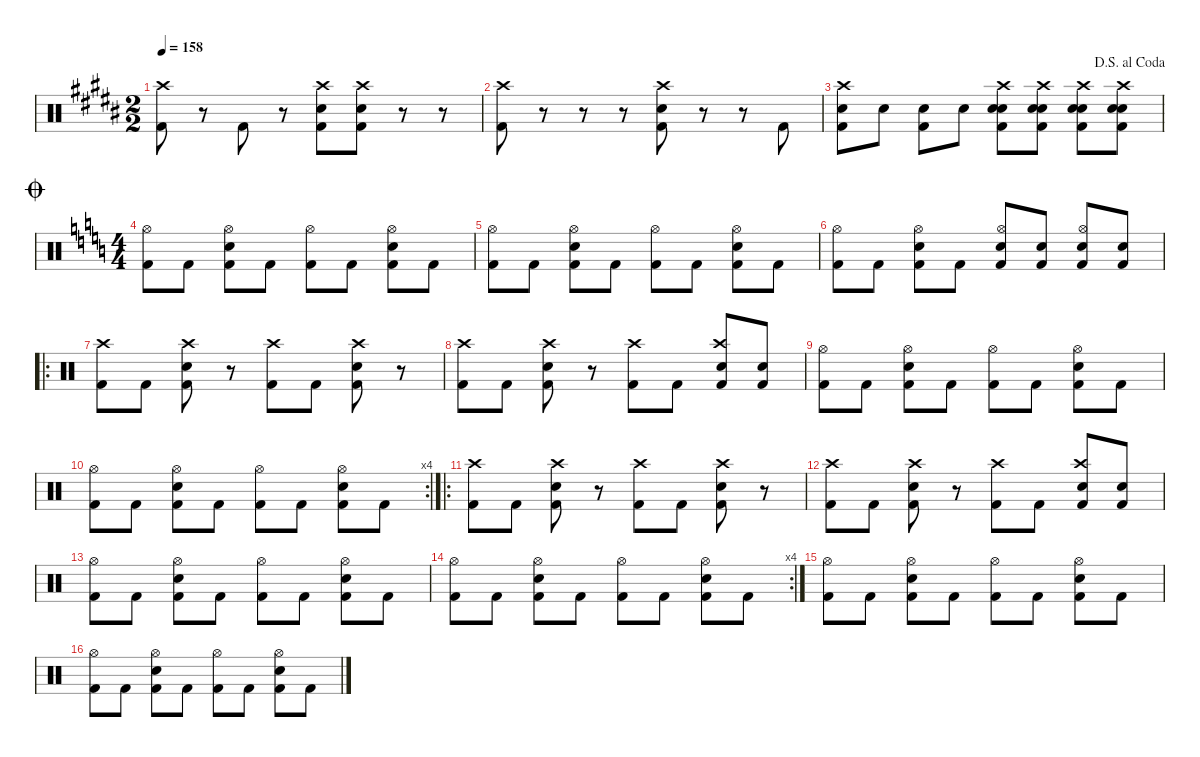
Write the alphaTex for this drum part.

\defaultSystemsLayout 4
\hideDynamics
\bracketExtendMode nobrackets
\singleTrackTrackNamePolicy hidden
\multiTrackTrackNamePolicy hidden
\firstSystemTrackNameMode fullname
\firstSystemTrackNameOrientation horizontal
\otherSystemsTrackNameOrientation horizontal
\track ("Drums" "drm.") {instrument percussion}
\staff {score}
\articulation defaults
\ts (2 2)
\tempo 158
\clef neutral
\ks g#minor
("Crash high (hit)"{acc forcenatural} "Kick (hit) 2"{acc forcenatural}).8{dy f beam Down} r.8{beam Down} "Kick (hit) 2"{acc forcenatural}.8{beam Down} r.8{beam Down} ("Crash high (hit)"{acc forcenatural} "Snare (hit) 2"{acc forcenatural} "Kick (hit) 2"{acc forcenatural}).8{beam Down} ("Crash high (hit)"{acc forcenatural} "Snare (hit) 2"{acc forcenatural} "Kick (hit) 2"{acc forcenatural}).8{beam Down} r.8{beam Down} r.8{beam Down} |
\ks b
("Crash high (hit)"{acc forcenatural} "Kick (hit) 2"{acc forcenatural}).8{beam Down} r.8{beam Down} r.8{beam Down} r.8{beam Down} ("Crash high (hit)"{acc forcenatural} "Snare (hit) 2"{acc forcenatural} "Kick (hit) 2"{acc forcenatural}).8{beam Down} r.8{beam Down} r.8{beam Down} "Kick (hit) 2"{acc forcenatural}.8{beam Down} |
\jump dalsegnoalcoda
\ks g#minor
("Crash high (hit)"{acc forcenatural} "Snare (hit) 2"{acc forcenatural} "Kick (hit) 2"{acc forcenatural}).8{beam Down} "Snare (hit) 2"{acc forcenatural}.8{beam Down} ("Snare (hit) 2"{acc forcenatural} "Kick (hit) 2"{acc forcenatural}).8{beam Down} "Snare (hit) 2"{acc forcenatural}.8{beam Down} ("Crash high (hit)"{acc forcenatural} "Snare (hit) 2"{acc forcenatural} "Snare (hit) 2"{acc forcenatural} "Kick (hit) 2"{acc forcenatural}).8{beam Down} ("Crash high (hit)"{acc forcenatural} "Snare (hit) 2"{acc forcenatural} "Snare (hit) 2"{acc forcenatural} "Kick (hit) 2"{acc forcenatural}).8{beam Down} ("Crash high (hit)"{acc forcenatural} "Snare (hit) 2"{acc forcenatural} "Kick (hit) 2"{acc forcenatural} "Snare (hit) 2"{acc forcenatural}).8{beam Down} ("Crash high (hit)"{acc forcenatural} "Snare (hit) 2"{acc forcenatural} "Kick (hit) 2"{acc forcenatural} "Snare (hit) 2"{acc forcenatural}).8{beam Down} |
\ts (4 4)
\beaming (8 2 2 2 2)
\jump coda
\ks c
("Hi-Hat (open)" "Kick (hit) 2").8{beam Down} "Kick (hit) 2".8{beam Down} ("Hi-Hat (open)" "Snare (hit) 2" "Kick (hit) 2").8{beam Down} "Kick (hit) 2".8{beam Down} ("Hi-Hat (open)" "Kick (hit) 2").8{beam Down} "Kick (hit) 2".8{beam Down} ("Hi-Hat (open)" "Kick (hit) 2" "Snare (hit) 2").8{beam Down} "Kick (hit) 2".8{beam Down} |
("Hi-Hat (open)" "Kick (hit) 2").8{beam Down} "Kick (hit) 2".8{beam Down} ("Hi-Hat (open)" "Snare (hit) 2" "Kick (hit) 2").8{beam Down} "Kick (hit) 2".8{beam Down} ("Hi-Hat (open)" "Kick (hit) 2").8{beam Down} "Kick (hit) 2".8{beam Down} ("Hi-Hat (open)" "Kick (hit) 2" "Snare (hit) 2").8{beam Down} "Kick (hit) 2".8{beam Down} |
("Hi-Hat (open)" "Kick (hit) 2").8{beam Down} "Kick (hit) 2".8{beam Down} ("Hi-Hat (open)" "Snare (hit) 2" "Kick (hit) 2").8{beam Down} "Kick (hit) 2".8{beam Down} ("Hi-Hat (open)" "Snare (hit) 2" "Kick (hit) 2").8{beam Up} ("Snare (hit) 2" "Kick (hit) 2").8{beam Up} ("Hi-Hat (open)" "Kick (hit) 2" "Snare (hit) 2").8{beam Up} ("Snare (hit) 2" "Kick (hit) 2").8{beam Up} |
\ro
("Crash high (hit)" "Kick (hit) 2").8{beam Down} "Kick (hit) 2".8{beam Down} ("Crash high (hit)" "Snare (hit) 2" "Kick (hit) 2").8{beam Down} r.8{beam Down} ("Crash high (hit)" "Kick (hit) 2").8{beam Down} "Kick (hit) 2".8{beam Down} ("Crash high (hit)" "Snare (hit) 2" "Kick (hit) 2").8{beam Down} r.8{beam Down} |
("Crash high (hit)" "Kick (hit) 2").8{beam Down} "Kick (hit) 2".8{beam Down} ("Crash high (hit)" "Snare (hit) 2" "Kick (hit) 2").8{beam Down} r.8{beam Down} ("Crash high (hit)" "Kick (hit) 2").8{beam Down} "Kick (hit) 2".8{beam Down} ("Crash high (hit)" "Snare (hit) 2" "Kick (hit) 2").8{beam Up} ("Snare (hit) 2" "Kick (hit) 2").8{beam Up} |
("Hi-Hat (open)" "Kick (hit) 2").8{beam Down} "Kick (hit) 2".8{beam Down} ("Hi-Hat (open)" "Snare (hit) 2" "Kick (hit) 2").8{beam Down} "Kick (hit) 2".8{beam Down} ("Hi-Hat (open)" "Kick (hit) 2").8{beam Down} "Kick (hit) 2".8{beam Down} ("Hi-Hat (open)" "Kick (hit) 2" "Snare (hit) 2").8{beam Down} "Kick (hit) 2".8{beam Down} |
\rc 4
("Hi-Hat (open)" "Kick (hit) 2").8{beam Down} "Kick (hit) 2".8{beam Down} ("Hi-Hat (open)" "Snare (hit) 2" "Kick (hit) 2").8{beam Down} "Kick (hit) 2".8{beam Down} ("Hi-Hat (open)" "Kick (hit) 2").8{beam Down} "Kick (hit) 2".8{beam Down} ("Hi-Hat (open)" "Kick (hit) 2" "Snare (hit) 2").8{beam Down} "Kick (hit) 2".8{beam Down} |
\ro
("Crash high (hit)" "Kick (hit) 2").8{beam Down} "Kick (hit) 2".8{beam Down} ("Crash high (hit)" "Snare (hit) 2" "Kick (hit) 2").8{beam Down} r.8{beam Down} ("Crash high (hit)" "Kick (hit) 2").8{beam Down} "Kick (hit) 2".8{beam Down} ("Crash high (hit)" "Snare (hit) 2" "Kick (hit) 2").8{beam Down} r.8{beam Down} |
("Crash high (hit)" "Kick (hit) 2").8{beam Down} "Kick (hit) 2".8{beam Down} ("Crash high (hit)" "Snare (hit) 2" "Kick (hit) 2").8{beam Down} r.8{beam Down} ("Crash high (hit)" "Kick (hit) 2").8{beam Down} "Kick (hit) 2".8{beam Down} ("Crash high (hit)" "Snare (hit) 2" "Kick (hit) 2").8{beam Up} ("Snare (hit) 2" "Kick (hit) 2").8{beam Up} |
("Hi-Hat (open)" "Kick (hit) 2").8{beam Down} "Kick (hit) 2".8{beam Down} ("Hi-Hat (open)" "Snare (hit) 2" "Kick (hit) 2").8{beam Down} "Kick (hit) 2".8{beam Down} ("Hi-Hat (open)" "Kick (hit) 2").8{beam Down} "Kick (hit) 2".8{beam Down} ("Hi-Hat (open)" "Kick (hit) 2" "Snare (hit) 2").8{beam Down} "Kick (hit) 2".8{beam Down} |
\rc 4
("Hi-Hat (open)" "Kick (hit) 2").8{beam Down} "Kick (hit) 2".8{beam Down} ("Hi-Hat (open)" "Snare (hit) 2" "Kick (hit) 2").8{beam Down} "Kick (hit) 2".8{beam Down} ("Hi-Hat (open)" "Kick (hit) 2").8{beam Down} "Kick (hit) 2".8{beam Down} ("Hi-Hat (open)" "Kick (hit) 2" "Snare (hit) 2").8{beam Down} "Kick (hit) 2".8{beam Down} |
("Hi-Hat (open)" "Kick (hit) 2").8{beam Down} "Kick (hit) 2".8{beam Down} ("Hi-Hat (open)" "Snare (hit) 2" "Kick (hit) 2").8{beam Down} "Kick (hit) 2".8{beam Down} ("Hi-Hat (open)" "Kick (hit) 2").8{beam Down} "Kick (hit) 2".8{beam Down} ("Hi-Hat (open)" "Kick (hit) 2" "Snare (hit) 2").8{beam Down} "Kick (hit) 2".8{beam Down} |
("Hi-Hat (open)" "Kick (hit) 2").8{beam Down} "Kick (hit) 2".8{beam Down} ("Hi-Hat (open)" "Snare (hit) 2" "Kick (hit) 2").8{beam Down} "Kick (hit) 2".8{beam Down} ("Hi-Hat (open)" "Kick (hit) 2").8{beam Down} "Kick (hit) 2".8{beam Down} ("Hi-Hat (open)" "Kick (hit) 2" "Snare (hit) 2").8{beam Down} "Kick (hit) 2".8{beam Down}
